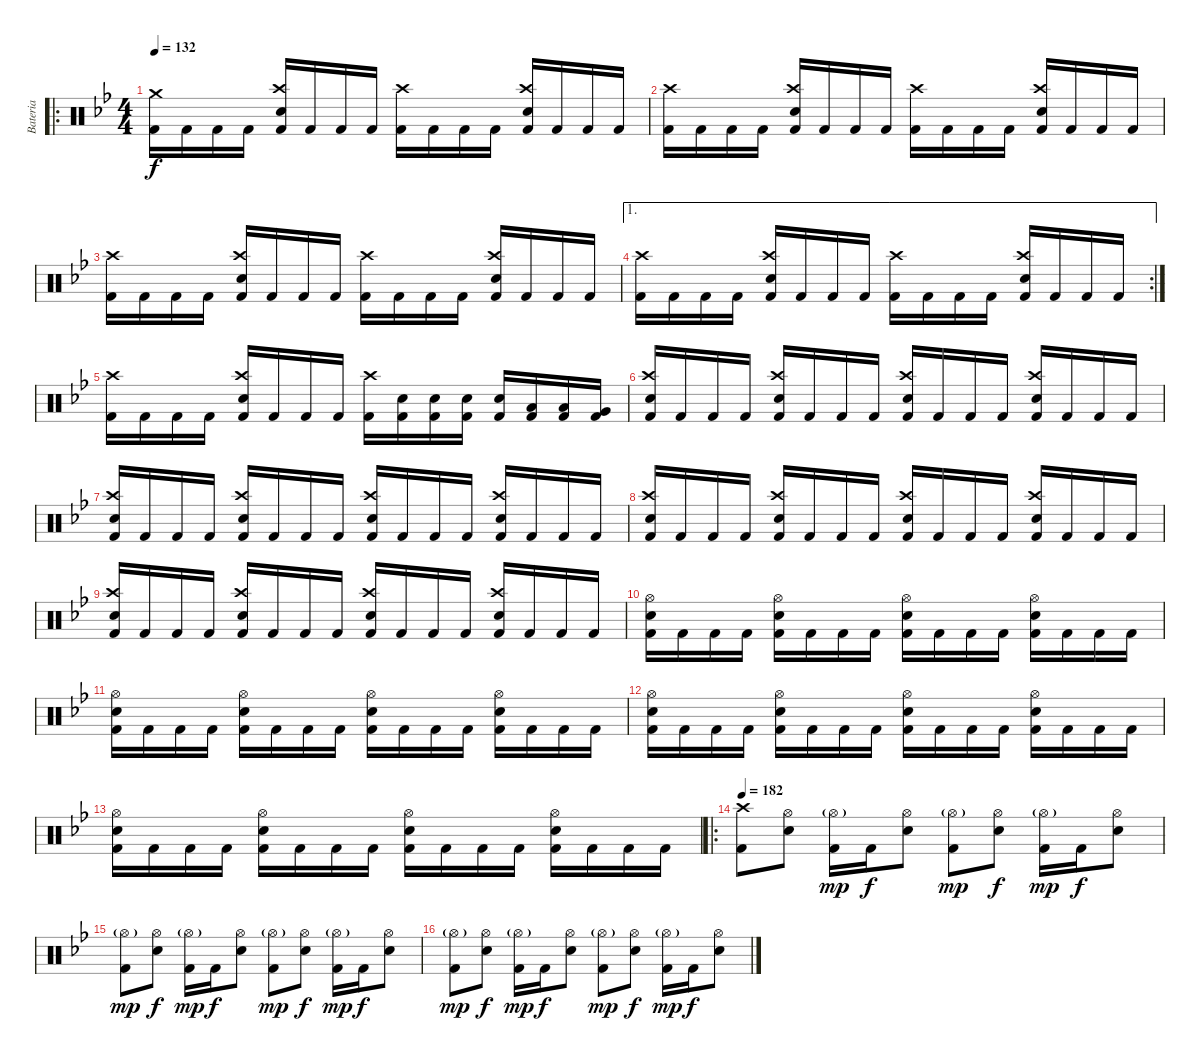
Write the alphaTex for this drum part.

\track ("Bateria" "Bateria") {instrument percussion}
\staff {score}
\articulation defaults
\ro
\ts (4 4)
\tempo 132
\clef neutral
\ks gminor
("Crash medium (hit)" "Kick (hit) 2").16{dy f} "Kick (hit) 2".16 "Kick (hit) 2".16 "Kick (hit) 2".16 ("Crash high (hit)" "Electric Snare (hit)" "Kick (hit) 2").16 "Kick (hit) 2".16 "Kick (hit) 2".16 "Kick (hit) 2".16 ("Crash high (hit)" "Kick (hit) 2").16 "Kick (hit) 2".16 "Kick (hit) 2".16 "Kick (hit) 2".16 ("Crash high (hit)" "Electric Snare (hit)" "Kick (hit) 2").16 "Kick (hit) 2".16 "Kick (hit) 2".16 "Kick (hit) 2".16 |
("Crash high (hit)" "Kick (hit) 2").16 "Kick (hit) 2".16 "Kick (hit) 2".16 "Kick (hit) 2".16 ("Crash high (hit)" "Electric Snare (hit)" "Kick (hit) 2").16 "Kick (hit) 2".16 "Kick (hit) 2".16 "Kick (hit) 2".16 ("Crash high (hit)" "Kick (hit) 2").16 "Kick (hit) 2".16 "Kick (hit) 2".16 "Kick (hit) 2".16 ("Crash high (hit)" "Electric Snare (hit)" "Kick (hit) 2").16 "Kick (hit) 2".16 "Kick (hit) 2".16 "Kick (hit) 2".16 |
("Crash high (hit)" "Kick (hit) 2").16 "Kick (hit) 2".16 "Kick (hit) 2".16 "Kick (hit) 2".16 ("Crash high (hit)" "Electric Snare (hit)" "Kick (hit) 2").16 "Kick (hit) 2".16 "Kick (hit) 2".16 "Kick (hit) 2".16 ("Crash high (hit)" "Kick (hit) 2").16 "Kick (hit) 2".16 "Kick (hit) 2".16 "Kick (hit) 2".16 ("Crash high (hit)" "Electric Snare (hit)" "Kick (hit) 2").16 "Kick (hit) 2".16 "Kick (hit) 2".16 "Kick (hit) 2".16 |
\ae 1
\rc 2
("Crash high (hit)" "Kick (hit) 2").16 "Kick (hit) 2".16 "Kick (hit) 2".16 "Kick (hit) 2".16 ("Crash high (hit)" "Electric Snare (hit)" "Kick (hit) 2").16 "Kick (hit) 2".16 "Kick (hit) 2".16 "Kick (hit) 2".16 ("Crash high (hit)" "Kick (hit) 2").16 "Kick (hit) 2".16 "Kick (hit) 2".16 "Kick (hit) 2".16 ("Crash high (hit)" "Electric Snare (hit)" "Kick (hit) 2").16 "Kick (hit) 2".16 "Kick (hit) 2".16 "Kick (hit) 2".16 |
("Crash high (hit)" "Kick (hit) 2").16 "Kick (hit) 2".16 "Kick (hit) 2".16 "Kick (hit) 2".16 ("Crash high (hit)" "Electric Snare (hit)" "Kick (hit) 2").16 "Kick (hit) 2".16 "Kick (hit) 2".16 "Kick (hit) 2".16 ("Crash high (hit)" "Kick (hit) 2").16 ("Electric Snare (hit)" "Kick (hit) 2").16 ("Electric Snare (hit)" "Kick (hit) 2").16 ("Electric Snare (hit)" "Kick (hit) 2").16 ("Electric Snare (hit)" "Kick (hit) 2").16 ("Low Tom (hit)" "Kick (hit) 2").16 ("Low Tom (hit)" "Kick (hit) 2").16 ("Very Low Tom (hit)" "Kick (hit) 2").16 |
("Crash high (hit)" "Electric Snare (hit)" "Kick (hit) 2").16 "Kick (hit) 2".16 "Kick (hit) 2".16 "Kick (hit) 2".16 ("Crash high (hit)" "Electric Snare (hit)" "Kick (hit) 2").16 "Kick (hit) 2".16 "Kick (hit) 2".16 "Kick (hit) 2".16 ("Crash high (hit)" "Electric Snare (hit)" "Kick (hit) 2").16 "Kick (hit) 2".16 "Kick (hit) 2".16 "Kick (hit) 2".16 ("Crash high (hit)" "Electric Snare (hit)" "Kick (hit) 2").16 "Kick (hit) 2".16 "Kick (hit) 2".16 "Kick (hit) 2".16 |
("Crash high (hit)" "Electric Snare (hit)" "Kick (hit) 2").16 "Kick (hit) 2".16 "Kick (hit) 2".16 "Kick (hit) 2".16 ("Crash high (hit)" "Electric Snare (hit)" "Kick (hit) 2").16 "Kick (hit) 2".16 "Kick (hit) 2".16 "Kick (hit) 2".16 ("Crash high (hit)" "Electric Snare (hit)" "Kick (hit) 2").16 "Kick (hit) 2".16 "Kick (hit) 2".16 "Kick (hit) 2".16 ("Crash high (hit)" "Electric Snare (hit)" "Kick (hit) 2").16 "Kick (hit) 2".16 "Kick (hit) 2".16 "Kick (hit) 2".16 |
("Crash high (hit)" "Electric Snare (hit)" "Kick (hit) 2").16 "Kick (hit) 2".16 "Kick (hit) 2".16 "Kick (hit) 2".16 ("Crash high (hit)" "Electric Snare (hit)" "Kick (hit) 2").16 "Kick (hit) 2".16 "Kick (hit) 2".16 "Kick (hit) 2".16 ("Crash high (hit)" "Electric Snare (hit)" "Kick (hit) 2").16 "Kick (hit) 2".16 "Kick (hit) 2".16 "Kick (hit) 2".16 ("Crash high (hit)" "Electric Snare (hit)" "Kick (hit) 2").16 "Kick (hit) 2".16 "Kick (hit) 2".16 "Kick (hit) 2".16 |
("Crash high (hit)" "Electric Snare (hit)" "Kick (hit) 2").16 "Kick (hit) 2".16 "Kick (hit) 2".16 "Kick (hit) 2".16 ("Crash high (hit)" "Electric Snare (hit)" "Kick (hit) 2").16 "Kick (hit) 2".16 "Kick (hit) 2".16 "Kick (hit) 2".16 ("Crash high (hit)" "Electric Snare (hit)" "Kick (hit) 2").16 "Kick (hit) 2".16 "Kick (hit) 2".16 "Kick (hit) 2".16 ("Crash high (hit)" "Electric Snare (hit)" "Kick (hit) 2").16 "Kick (hit) 2".16 "Kick (hit) 2".16 "Kick (hit) 2".16 |
("Hi-Hat (open)" "Electric Snare (hit)" "Kick (hit) 2").16 "Kick (hit) 2".16 "Kick (hit) 2".16 "Kick (hit) 2".16 ("Hi-Hat (open)" "Electric Snare (hit)" "Kick (hit) 2").16 "Kick (hit) 2".16 "Kick (hit) 2".16 "Kick (hit) 2".16 ("Hi-Hat (open)" "Electric Snare (hit)" "Kick (hit) 2").16 "Kick (hit) 2".16 "Kick (hit) 2".16 "Kick (hit) 2".16 ("Hi-Hat (open)" "Electric Snare (hit)" "Kick (hit) 2").16 "Kick (hit) 2".16 "Kick (hit) 2".16 "Kick (hit) 2".16 |
("Hi-Hat (open)" "Electric Snare (hit)" "Kick (hit) 2").16 "Kick (hit) 2".16 "Kick (hit) 2".16 "Kick (hit) 2".16 ("Hi-Hat (open)" "Electric Snare (hit)" "Kick (hit) 2").16 "Kick (hit) 2".16 "Kick (hit) 2".16 "Kick (hit) 2".16 ("Hi-Hat (open)" "Electric Snare (hit)" "Kick (hit) 2").16 "Kick (hit) 2".16 "Kick (hit) 2".16 "Kick (hit) 2".16 ("Hi-Hat (open)" "Electric Snare (hit)" "Kick (hit) 2").16 "Kick (hit) 2".16 "Kick (hit) 2".16 "Kick (hit) 2".16 |
("Hi-Hat (open)" "Electric Snare (hit)" "Kick (hit) 2").16 "Kick (hit) 2".16 "Kick (hit) 2".16 "Kick (hit) 2".16 ("Hi-Hat (open)" "Electric Snare (hit)" "Kick (hit) 2").16 "Kick (hit) 2".16 "Kick (hit) 2".16 "Kick (hit) 2".16 ("Hi-Hat (open)" "Electric Snare (hit)" "Kick (hit) 2").16 "Kick (hit) 2".16 "Kick (hit) 2".16 "Kick (hit) 2".16 ("Hi-Hat (open)" "Electric Snare (hit)" "Kick (hit) 2").16 "Kick (hit) 2".16 "Kick (hit) 2".16 "Kick (hit) 2".16 |
("Hi-Hat (open)" "Electric Snare (hit)" "Kick (hit) 2").16 "Kick (hit) 2".16 "Kick (hit) 2".16 "Kick (hit) 2".16 ("Hi-Hat (open)" "Electric Snare (hit)" "Kick (hit) 2").16 "Kick (hit) 2".16 "Kick (hit) 2".16 "Kick (hit) 2".16 ("Hi-Hat (open)" "Electric Snare (hit)" "Kick (hit) 2").16 "Kick (hit) 2".16 "Kick (hit) 2".16 "Kick (hit) 2".16 ("Hi-Hat (open)" "Electric Snare (hit)" "Kick (hit) 2").16 "Kick (hit) 2".16 "Kick (hit) 2".16 "Kick (hit) 2".16 |
\ro
\tempo 182
("Crash high (hit)" "Kick (hit) 2").8 ("Hi-Hat (open)" "Electric Snare (hit)").8 ("Hi-Hat (open)"{g} "Kick (hit) 2").16{dy mp} "Kick (hit) 2".16{dy f} ("Hi-Hat (open)" "Electric Snare (hit)").8 ("Hi-Hat (open)"{g} "Kick (hit) 2").8{dy mp} ("Hi-Hat (open)" "Electric Snare (hit)").8{dy f} ("Hi-Hat (open)"{g} "Kick (hit) 2").16{dy mp} "Kick (hit) 2".16{dy f} ("Hi-Hat (open)" "Electric Snare (hit)").8 |
("Hi-Hat (open)"{g} "Kick (hit) 2").8{dy mp} ("Hi-Hat (open)" "Electric Snare (hit)").8{dy f} ("Hi-Hat (open)"{g} "Kick (hit) 2").16{dy mp} "Kick (hit) 2".16{dy f} ("Hi-Hat (open)" "Electric Snare (hit)").8 ("Hi-Hat (open)"{g} "Kick (hit) 2").8{dy mp} ("Hi-Hat (open)" "Electric Snare (hit)").8{dy f} ("Hi-Hat (open)"{g} "Kick (hit) 2").16{dy mp} "Kick (hit) 2".16{dy f} ("Hi-Hat (open)" "Electric Snare (hit)").8 |
("Hi-Hat (open)"{g} "Kick (hit) 2").8{dy mp} ("Hi-Hat (open)" "Electric Snare (hit)").8{dy f} ("Hi-Hat (open)"{g} "Kick (hit) 2").16{dy mp} "Kick (hit) 2".16{dy f} ("Hi-Hat (open)" "Electric Snare (hit)").8 ("Hi-Hat (open)"{g} "Kick (hit) 2").8{dy mp} ("Hi-Hat (open)" "Electric Snare (hit)").8{dy f} ("Hi-Hat (open)"{g} "Kick (hit) 2").16{dy mp} "Kick (hit) 2".16{dy f} ("Hi-Hat (open)" "Electric Snare (hit)").8
